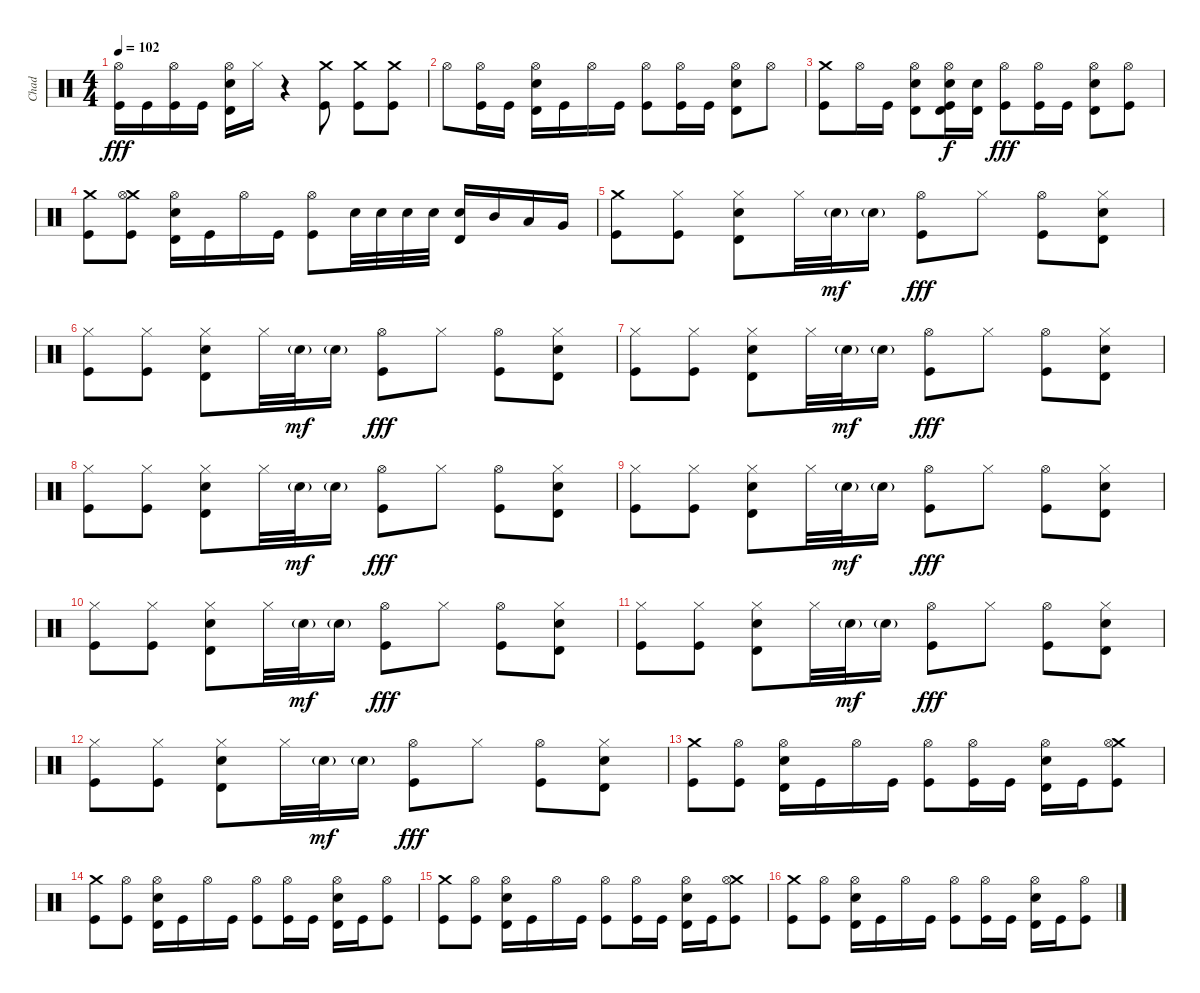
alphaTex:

\track ("Chad" "Chad") {instrument percussion}
\staff {score}
\articulation defaults
\ts (4 4)
\tempo 102
\clef neutral
\ks c
("Hi-Hat (open)" "Kick (hit)").16{dy fff} "Kick (hit)".16 ("Hi-Hat (open)" "Kick (hit)").16 "Kick (hit)".16 ("Hi-Hat (open)" "Electric Snare (hit)" "Timbale high (hit)").16 "Hi-Hat (closed)".16 r.4 ("Crash medium (hit)" "Kick (hit)").8 ("Crash medium (hit)" "Kick (hit)").8 ("Crash medium (hit)" "Kick (hit)").8 |
"Hi-Hat (open)".8 ("Hi-Hat (open)" "Kick (hit)").16 "Kick (hit)".16 ("Hi-Hat (open)" "Electric Snare (hit)" "Timbale high (hit)").16 "Kick (hit)".16 "Hi-Hat (open)".16 "Kick (hit)".16 ("Hi-Hat (open)" "Kick (hit)").8 ("Hi-Hat (open)" "Kick (hit)").16 "Kick (hit)".16 ("Hi-Hat (open)" "Electric Snare (hit)" "Timbale high (hit)").8 "Hi-Hat (open)".8 |
("Crash medium (hit)" "Kick (hit)").8 "Hi-Hat (open)".16 "Kick (hit)".16 ("Hi-Hat (open)" "Electric Snare (hit)" "Timbale high (hit)").8 ("Hi-Hat (open)" "Electric Snare (hit)" "Timbale high (hit)" "Kick (hit)").16{dy f} ("Electric Snare (hit)" "Timbale high (hit)").16 ("Hi-Hat (open)" "Kick (hit)").8{dy fff} ("Hi-Hat (open)" "Kick (hit)").16 "Kick (hit)".16 ("Hi-Hat (open)" "Electric Snare (hit)" "Timbale high (hit)").8 ("Hi-Hat (open)" "Kick (hit)").8 |
("Crash medium (hit)" "Kick (hit)").8 ("Crash medium (hit)" "Hi-Hat (open)" "Kick (hit)").8 ("Hi-Hat (open)" "Electric Snare (hit)" "Timbale high (hit)").16 "Kick (hit)".16 "Hi-Hat (open)".16 "Kick (hit)".16 ("Hi-Hat (open)" "Kick (hit)").8 "Electric Snare (hit)".32 "Electric Snare (hit)".32 "Electric Snare (hit)".32 "Electric Snare (hit)".32 ("Electric Snare (hit)" "Timbale high (hit)").16 "Mid Tom (hit)".16 "Low Tom (hit)".16 "Very Low Tom (hit)".16 |
("Crash medium (hit)" "Kick (hit)").8 ("Hi-Hat (closed)" "Kick (hit)").8 ("Hi-Hat (closed)" "Electric Snare (hit)" "Timbale high (hit)").8 "Hi-Hat (closed)".32 "Electric Snare (hit)"{g}.32{dy mf} "Electric Snare (hit)"{g}.16 ("Hi-Hat (open)" "Kick (hit)").8{dy fff} "Hi-Hat (closed)".8 ("Hi-Hat (open)" "Kick (hit)").8 ("Hi-Hat (closed)" "Electric Snare (hit)" "Timbale high (hit)").8 |
("Hi-Hat (closed)" "Kick (hit)").8 ("Hi-Hat (closed)" "Kick (hit)").8 ("Hi-Hat (closed)" "Electric Snare (hit)" "Timbale high (hit)").8 "Hi-Hat (closed)".32 "Electric Snare (hit)"{g}.32{dy mf} "Electric Snare (hit)"{g}.16 ("Hi-Hat (open)" "Kick (hit)").8{dy fff} "Hi-Hat (closed)".8 ("Hi-Hat (open)" "Kick (hit)").8 ("Hi-Hat (closed)" "Electric Snare (hit)" "Timbale high (hit)").8 |
("Hi-Hat (closed)" "Kick (hit)").8 ("Hi-Hat (closed)" "Kick (hit)").8 ("Hi-Hat (closed)" "Electric Snare (hit)" "Timbale high (hit)").8 "Hi-Hat (closed)".32 "Electric Snare (hit)"{g}.32{dy mf} "Electric Snare (hit)"{g}.16 ("Hi-Hat (open)" "Kick (hit)").8{dy fff} "Hi-Hat (closed)".8 ("Hi-Hat (open)" "Kick (hit)").8 ("Hi-Hat (closed)" "Electric Snare (hit)" "Timbale high (hit)").8 |
("Hi-Hat (closed)" "Kick (hit)").8 ("Hi-Hat (closed)" "Kick (hit)").8 ("Hi-Hat (closed)" "Electric Snare (hit)" "Timbale high (hit)").8 "Hi-Hat (closed)".32 "Electric Snare (hit)"{g}.32{dy mf} "Electric Snare (hit)"{g}.16 ("Hi-Hat (open)" "Kick (hit)").8{dy fff} "Hi-Hat (closed)".8 ("Hi-Hat (open)" "Kick (hit)").8 ("Hi-Hat (closed)" "Electric Snare (hit)" "Timbale high (hit)").8 |
("Hi-Hat (closed)" "Kick (hit)").8 ("Hi-Hat (closed)" "Kick (hit)").8 ("Hi-Hat (closed)" "Electric Snare (hit)" "Timbale high (hit)").8 "Hi-Hat (closed)".32 "Electric Snare (hit)"{g}.32{dy mf} "Electric Snare (hit)"{g}.16 ("Hi-Hat (open)" "Kick (hit)").8{dy fff} "Hi-Hat (closed)".8 ("Hi-Hat (open)" "Kick (hit)").8 ("Hi-Hat (closed)" "Electric Snare (hit)" "Timbale high (hit)").8 |
("Hi-Hat (closed)" "Kick (hit)").8 ("Hi-Hat (closed)" "Kick (hit)").8 ("Hi-Hat (closed)" "Electric Snare (hit)" "Timbale high (hit)").8 "Hi-Hat (closed)".32 "Electric Snare (hit)"{g}.32{dy mf} "Electric Snare (hit)"{g}.16 ("Hi-Hat (open)" "Kick (hit)").8{dy fff} "Hi-Hat (closed)".8 ("Hi-Hat (open)" "Kick (hit)").8 ("Hi-Hat (closed)" "Electric Snare (hit)" "Timbale high (hit)").8 |
("Hi-Hat (closed)" "Kick (hit)").8 ("Hi-Hat (closed)" "Kick (hit)").8 ("Hi-Hat (closed)" "Electric Snare (hit)" "Timbale high (hit)").8 "Hi-Hat (closed)".32 "Electric Snare (hit)"{g}.32{dy mf} "Electric Snare (hit)"{g}.16 ("Hi-Hat (open)" "Kick (hit)").8{dy fff} "Hi-Hat (closed)".8 ("Hi-Hat (open)" "Kick (hit)").8 ("Hi-Hat (closed)" "Electric Snare (hit)" "Timbale high (hit)").8 |
("Hi-Hat (closed)" "Kick (hit)").8 ("Hi-Hat (closed)" "Kick (hit)").8 ("Hi-Hat (closed)" "Electric Snare (hit)" "Timbale high (hit)").8 "Hi-Hat (closed)".32 "Electric Snare (hit)"{g}.32{dy mf} "Electric Snare (hit)"{g}.16 ("Hi-Hat (open)" "Kick (hit)").8{dy fff} "Hi-Hat (closed)".8 ("Hi-Hat (open)" "Kick (hit)").8 ("Hi-Hat (closed)" "Electric Snare (hit)" "Timbale high (hit)").8 |
("Crash medium (hit)" "Kick (hit)").8 ("Hi-Hat (open)" "Kick (hit)").8 ("Hi-Hat (open)" "Electric Snare (hit)" "Timbale high (hit)").16 "Kick (hit)".16 "Hi-Hat (open)".16 "Kick (hit)".16 ("Hi-Hat (open)" "Kick (hit)").8 ("Hi-Hat (open)" "Kick (hit)").16 "Kick (hit)".16 ("Hi-Hat (open)" "Electric Snare (hit)" "Timbale high (hit)").16 "Kick (hit)".16 ("Crash medium (hit)" "Hi-Hat (open)" "Kick (hit)").8 |
("Crash medium (hit)" "Kick (hit)").8 ("Hi-Hat (open)" "Kick (hit)").8 ("Hi-Hat (open)" "Electric Snare (hit)" "Timbale high (hit)").16 "Kick (hit)".16 "Hi-Hat (open)".16 "Kick (hit)".16 ("Hi-Hat (open)" "Kick (hit)").8 ("Hi-Hat (open)" "Kick (hit)").16 "Kick (hit)".16 ("Hi-Hat (open)" "Electric Snare (hit)" "Timbale high (hit)").16 "Kick (hit)".16 ("Hi-Hat (open)" "Kick (hit)").8 |
("Crash medium (hit)" "Kick (hit)").8 ("Hi-Hat (open)" "Kick (hit)").8 ("Hi-Hat (open)" "Electric Snare (hit)" "Timbale high (hit)").16 "Kick (hit)".16 "Hi-Hat (open)".16 "Kick (hit)".16 ("Hi-Hat (open)" "Kick (hit)").8 ("Hi-Hat (open)" "Kick (hit)").16 "Kick (hit)".16 ("Hi-Hat (open)" "Electric Snare (hit)" "Timbale high (hit)").16 "Kick (hit)".16 ("Crash medium (hit)" "Hi-Hat (open)" "Kick (hit)").8 |
("Crash medium (hit)" "Kick (hit)").8 ("Hi-Hat (open)" "Kick (hit)").8 ("Hi-Hat (open)" "Electric Snare (hit)" "Timbale high (hit)").16 "Kick (hit)".16 "Hi-Hat (open)".16 "Kick (hit)".16 ("Hi-Hat (open)" "Kick (hit)").8 ("Hi-Hat (open)" "Kick (hit)").16 "Kick (hit)".16 ("Hi-Hat (open)" "Electric Snare (hit)" "Timbale high (hit)").16 "Kick (hit)".16 ("Hi-Hat (open)" "Kick (hit)").8
